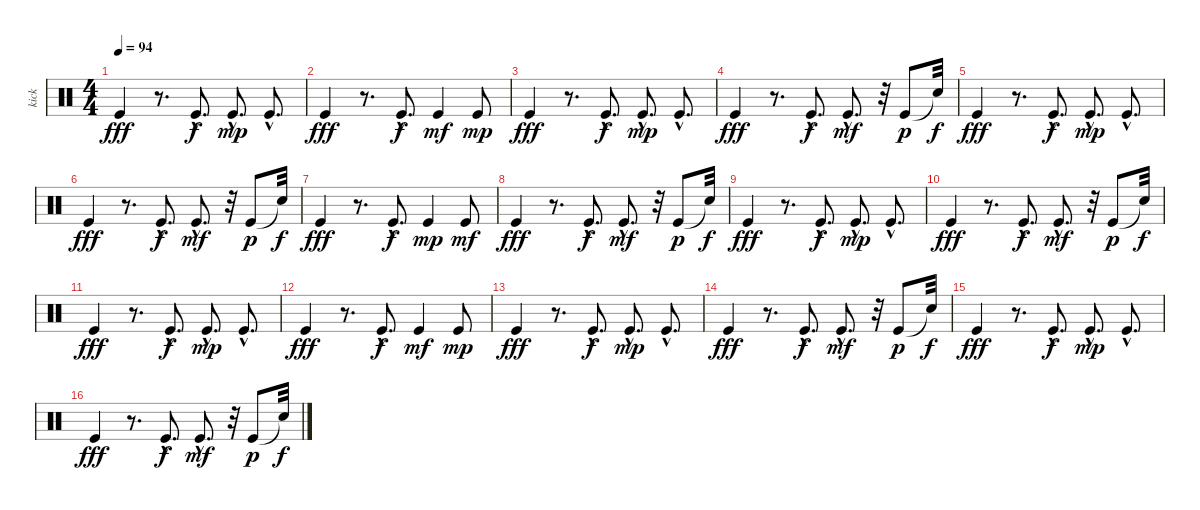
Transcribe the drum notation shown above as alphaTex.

\track ("kick" "kick") {instrument percussion}
\staff {score}
\articulation defaults
\ts (4 4)
\tempo 94
\clef neutral
\ks c "Kick (hit)".4{dy fff}
r.8{d} "Kick (hit)"{hac}.8{d dy f} "Kick (hit)"{hac}.8{d dy mp} "Kick (hit)"{hac}.8{d} |
"Kick (hit)".4{dy fff} r.8{d} "Kick (hit)"{hac}.8{d dy f} "Kick (hit)".4{dy mf} "Kick (hit)".8{dy mp} |
"Kick (hit)".4{dy fff} r.8{d} "Kick (hit)"{hac}.8{d dy f} "Kick (hit)"{hac}.8{d dy mp} "Kick (hit)"{hac}.8{d} |
"Kick (hit)".4{dy fff} r.8{d} "Kick (hit)"{hac}.8{d dy f} "Kick (hit)"{hac}.8{d dy mf} r.32 "Kick (hit)".8{dy p} "Snare (hit)"{t}.32{dy f} |
"Kick (hit)".4{dy fff} r.8{d} "Kick (hit)"{hac}.8{d dy f} "Kick (hit)"{hac}.8{d dy mp} "Kick (hit)"{hac}.8{d} |
"Kick (hit)".4{dy fff} r.8{d} "Kick (hit)"{hac}.8{d dy f} "Kick (hit)"{hac}.8{d dy mf} r.32 "Kick (hit)".8{dy p} "Snare (hit)"{t}.32{dy f} |
"Kick (hit)".4{dy fff} r.8{d} "Kick (hit)"{hac}.8{d dy f} "Kick (hit)".4{dy mp} "Kick (hit)".8{dy mf} |
"Kick (hit)".4{dy fff} r.8{d} "Kick (hit)"{hac}.8{d dy f} "Kick (hit)"{hac}.8{d dy mf} r.32 "Kick (hit)".8{dy p} "Snare (hit)"{t}.32{dy f} |
"Kick (hit)".4{dy fff} r.8{d} "Kick (hit)"{hac}.8{d dy f} "Kick (hit)"{hac}.8{d dy mp} "Kick (hit)"{hac}.8{d} |
"Kick (hit)".4{dy fff} r.8{d} "Kick (hit)"{hac}.8{d dy f} "Kick (hit)"{hac}.8{d dy mf} r.32 "Kick (hit)".8{dy p} "Snare (hit)"{t}.32{dy f} |
"Kick (hit)".4{dy fff} r.8{d} "Kick (hit)"{hac}.8{d dy f volume 16} "Kick (hit)"{hac}.8{d dy mp} "Kick (hit)"{hac}.8{d volume 15} |
"Kick (hit)".4{dy fff volume 15} r.8{d} "Kick (hit)"{hac}.8{d dy f volume 13} "Kick (hit)".4{dy mf volume 12} "Kick (hit)".8{dy mp volume 11} |
"Kick (hit)".4{dy fff volume 11} r.8{d} "Kick (hit)"{hac}.8{d dy f volume 8} "Kick (hit)"{hac}.8{d dy mp volume 8} "Kick (hit)"{hac}.8{d volume 8} |
"Kick (hit)".4{dy fff} r.8{d} "Kick (hit)"{hac}.8{d dy f volume 7} "Kick (hit)"{hac}.8{d dy mf volume 7} r.32 "Kick (hit)".8{dy p volume 7} "Snare (hit)"{t}.32{dy f} |
"Kick (hit)".4{dy fff volume 7} r.8{d} "Kick (hit)"{hac}.8{d dy f volume 6} "Kick (hit)"{hac}.8{d dy mp volume 6} "Kick (hit)"{hac}.8{d volume 5} |
"Kick (hit)".4{dy fff volume 5} r.8{d} "Kick (hit)"{hac}.8{d dy f volume 4} "Kick (hit)"{hac}.8{d dy mf} r.32 "Kick (hit)".8{dy p volume 2} "Snare (hit)"{t}.32{dy f}
